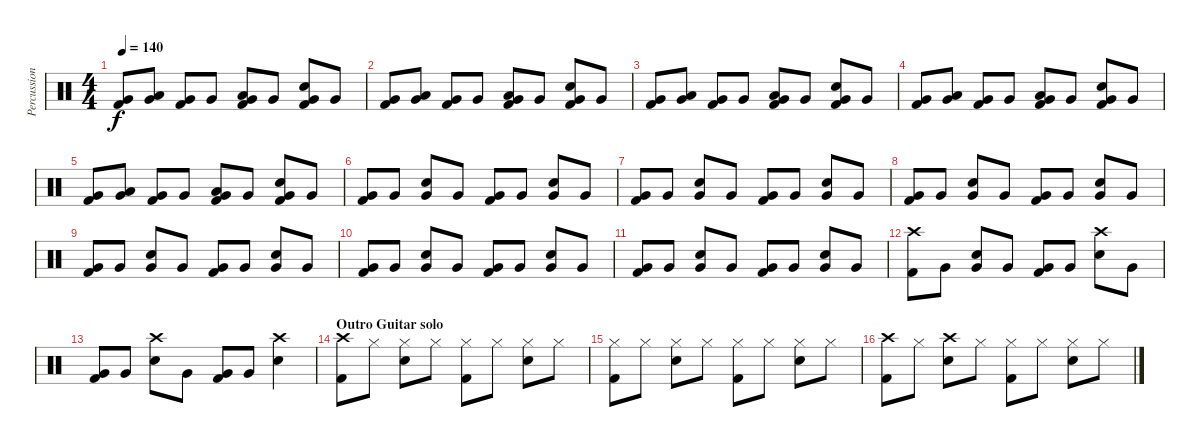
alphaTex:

\track ("Percussion" "Percussion") {instrument percussion}
\staff {score}
\articulation defaults
\ts (4 4)
\tempo 140
\clef neutral
\ks c
("Very Low Tom (hit)" "Kick (hit) 2").8{dy f} ("Low Tom (hit)" "Very Low Tom (hit)").8 ("Very Low Tom (hit)" "Kick (hit) 2").8 "Very Low Tom (hit)".8 ("Low Tom (hit)" "Very Low Tom (hit)" "Kick (hit) 2").8 "Very Low Tom (hit)".8 ("Very Low Tom (hit)" "Snare (hit) 2" "Kick (hit) 2").8 "Very Low Tom (hit)".8 |
("Very Low Tom (hit)" "Kick (hit) 2").8 ("Low Tom (hit)" "Very Low Tom (hit)").8 ("Very Low Tom (hit)" "Kick (hit) 2").8 "Very Low Tom (hit)".8 ("Low Tom (hit)" "Very Low Tom (hit)" "Kick (hit) 2").8 "Very Low Tom (hit)".8 ("Very Low Tom (hit)" "Snare (hit) 2" "Kick (hit) 2").8 "Very Low Tom (hit)".8 |
("Very Low Tom (hit)" "Kick (hit) 2").8 ("Low Tom (hit)" "Very Low Tom (hit)").8 ("Very Low Tom (hit)" "Kick (hit) 2").8 "Very Low Tom (hit)".8 ("Low Tom (hit)" "Very Low Tom (hit)" "Kick (hit) 2").8 "Very Low Tom (hit)".8 ("Very Low Tom (hit)" "Snare (hit) 2" "Kick (hit) 2").8 "Very Low Tom (hit)".8 |
("Very Low Tom (hit)" "Kick (hit) 2").8 ("Low Tom (hit)" "Very Low Tom (hit)").8 ("Very Low Tom (hit)" "Kick (hit) 2").8 "Very Low Tom (hit)".8 ("Low Tom (hit)" "Very Low Tom (hit)" "Kick (hit) 2").8 "Very Low Tom (hit)".8 ("Very Low Tom (hit)" "Snare (hit) 2" "Kick (hit) 2").8 "Very Low Tom (hit)".8 |
("Very Low Tom (hit)" "Kick (hit) 2").8 ("Low Tom (hit)" "Very Low Tom (hit)").8 ("Very Low Tom (hit)" "Kick (hit) 2").8 "Very Low Tom (hit)".8 ("Low Tom (hit)" "Very Low Tom (hit)" "Kick (hit) 2").8 "Very Low Tom (hit)".8 ("Very Low Tom (hit)" "Snare (hit) 2" "Kick (hit) 2").8 "Very Low Tom (hit)".8 |
("Very Low Tom (hit)" "Kick (hit) 2").8 "Very Low Tom (hit)".8 ("Very Low Tom (hit)" "Snare (hit) 2").8 "Very Low Tom (hit)".8 ("Very Low Tom (hit)" "Kick (hit) 2").8 "Very Low Tom (hit)".8 ("Very Low Tom (hit)" "Snare (hit) 2").8 "Very Low Tom (hit)".8 |
("Very Low Tom (hit)" "Kick (hit) 2").8 "Very Low Tom (hit)".8 ("Very Low Tom (hit)" "Snare (hit) 2").8 "Very Low Tom (hit)".8 ("Very Low Tom (hit)" "Kick (hit) 2").8 "Very Low Tom (hit)".8 ("Very Low Tom (hit)" "Snare (hit) 2").8 "Very Low Tom (hit)".8 |
("Very Low Tom (hit)" "Kick (hit) 2").8 "Very Low Tom (hit)".8 ("Very Low Tom (hit)" "Snare (hit) 2").8 "Very Low Tom (hit)".8 ("Very Low Tom (hit)" "Kick (hit) 2").8 "Very Low Tom (hit)".8 ("Very Low Tom (hit)" "Snare (hit) 2").8 "Very Low Tom (hit)".8 |
("Very Low Tom (hit)" "Kick (hit) 2").8 "Very Low Tom (hit)".8 ("Very Low Tom (hit)" "Snare (hit) 2").8 "Very Low Tom (hit)".8 ("Very Low Tom (hit)" "Kick (hit) 2").8 "Very Low Tom (hit)".8 ("Very Low Tom (hit)" "Snare (hit) 2").8 "Very Low Tom (hit)".8 |
("Very Low Tom (hit)" "Kick (hit) 2").8 "Very Low Tom (hit)".8 ("Very Low Tom (hit)" "Snare (hit) 2").8 "Very Low Tom (hit)".8 ("Very Low Tom (hit)" "Kick (hit) 2").8 "Very Low Tom (hit)".8 ("Very Low Tom (hit)" "Snare (hit) 2").8 "Very Low Tom (hit)".8 |
("Very Low Tom (hit)" "Kick (hit) 2").8 "Very Low Tom (hit)".8 ("Very Low Tom (hit)" "Snare (hit) 2").8 "Very Low Tom (hit)".8 ("Very Low Tom (hit)" "Kick (hit) 2").8 "Very Low Tom (hit)".8 ("Very Low Tom (hit)" "Snare (hit) 2").8 "Very Low Tom (hit)".8 |
("Crash high (hit)" "Kick (hit) 2").8 "Very Low Tom (hit)".8 ("Very Low Tom (hit)" "Snare (hit) 2").8 "Very Low Tom (hit)".8 ("Very Low Tom (hit)" "Kick (hit) 2").8 "Very Low Tom (hit)".8 ("Crash high (hit)" "Snare (hit) 2").8 "Very Low Tom (hit)".8 |
("Very Low Tom (hit)" "Kick (hit) 2").8 "Very Low Tom (hit)".8 ("Crash high (hit)" "Snare (hit) 2").8 "Very Low Tom (hit)".8 ("Very Low Tom (hit)" "Kick (hit) 2").8 "Very Low Tom (hit)".8 ("Crash high (hit)" "Snare (hit) 2").4 |
\section ("" "Outro Guitar solo")
("Crash high (hit)" "Kick (hit) 2").8 "Hi-Hat (closed)".8 ("Hi-Hat (closed)" "Snare (hit) 2").8 "Hi-Hat (closed)".8 ("Hi-Hat (closed)" "Kick (hit) 2").8 "Hi-Hat (closed)".8 ("Hi-Hat (closed)" "Snare (hit) 2").8 "Hi-Hat (closed)".8 |
("Hi-Hat (closed)" "Kick (hit) 2").8 "Hi-Hat (closed)".8 ("Hi-Hat (closed)" "Snare (hit) 2").8 "Hi-Hat (closed)".8 ("Hi-Hat (closed)" "Kick (hit) 2").8 "Hi-Hat (closed)".8 ("Hi-Hat (closed)" "Snare (hit) 2").8 "Hi-Hat (closed)".8 |
("Crash high (hit)" "Kick (hit) 2").8 "Hi-Hat (closed)".8 ("Crash high (hit)" "Snare (hit) 2").8 "Hi-Hat (closed)".8 ("Hi-Hat (closed)" "Kick (hit) 2").8 "Hi-Hat (closed)".8 ("Hi-Hat (closed)" "Snare (hit) 2").8 "Hi-Hat (closed)".8
